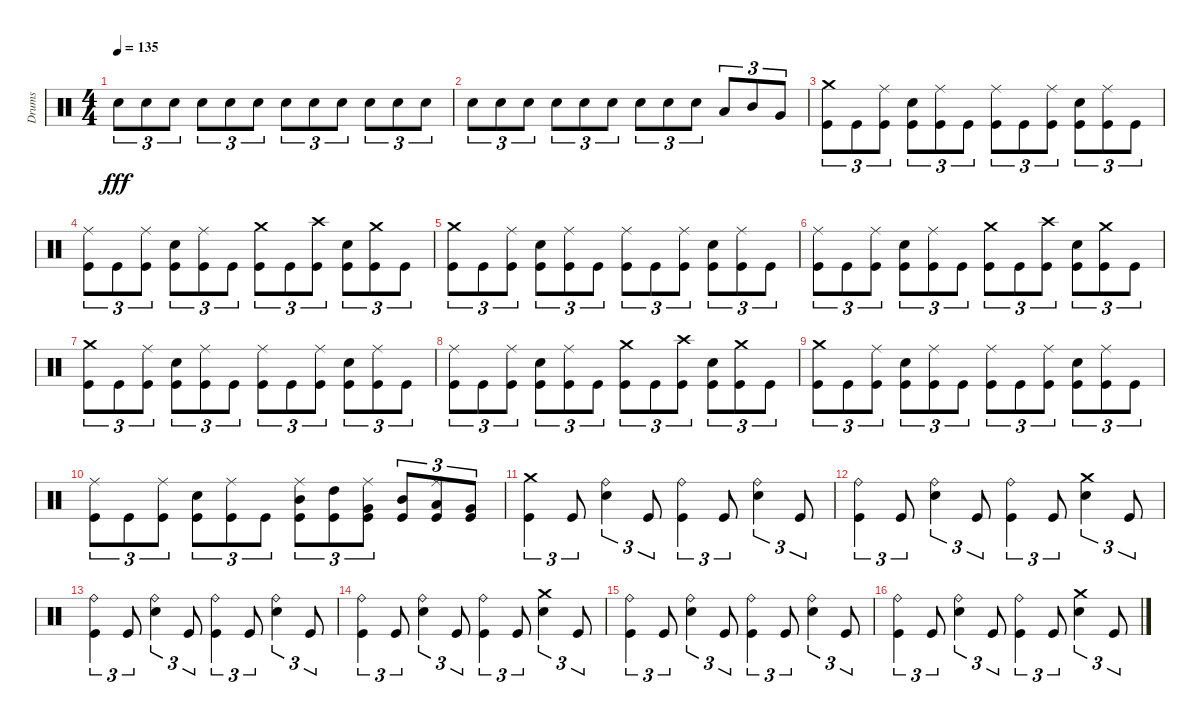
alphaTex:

\track ("Drums" "Drums") {instrument percussion}
\staff {score}
\articulation defaults
\ts (4 4)
\tempo 135
\clef neutral
\ks c "Snare (hit) 2".8{tu (3 2) dy fff} "Snare (hit) 2".8{tu (3 2)} "Snare (hit) 2".8{tu (3 2)} "Snare (hit) 2".8{tu (3 2)} "Snare (hit) 2".8{tu (3 2)} "Snare (hit) 2".8{tu (3 2)} "Snare (hit) 2".8{tu (3 2)} "Snare (hit) 2".8{tu (3 2)} "Snare (hit) 2".8{tu (3 2)} "Snare (hit) 2".8{tu (3 2)} "Snare (hit) 2".8{tu (3 2)} "Snare (hit) 2".8{tu (3 2)}
|
"Snare (hit) 2".8{tu (3 2)} "Snare (hit) 2".8{tu (3 2)} "Snare (hit) 2".8{tu (3 2)} "Snare (hit) 2".8{tu (3 2)} "Snare (hit) 2".8{tu (3 2)} "Snare (hit) 2".8{tu (3 2)} "Snare (hit) 2".8{tu (3 2)} "Snare (hit) 2".8{tu (3 2)} "Snare (hit) 2".8{tu (3 2)} "Low Tom (hit)".8{tu (3 2)} "Mid Tom (hit)".8{tu (3 2)} "Very Low Tom (hit)".8{tu (3 2)} |
("Crash medium (hit)" "Kick (hit)").8{tu (3 2)} "Kick (hit)".8{tu (3 2)} ("Ride (middle)" "Kick (hit)").8{tu (3 2)} ("Snare (hit) 2" "Kick (hit)").8{tu (3 2)} ("Ride (middle)" "Kick (hit)").8{tu (3 2)} "Kick (hit)".8{tu (3 2)} ("Ride (middle)" "Kick (hit)").8{tu (3 2)} "Kick (hit)".8{tu (3 2)} ("Ride (middle)" "Kick (hit)").8{tu (3 2)} ("Snare (hit) 2" "Kick (hit)").8{tu (3 2)} ("Ride (middle)" "Kick (hit)").8{tu (3 2)} "Kick (hit)".8{tu (3 2)} |
("Ride (middle)" "Kick (hit)").8{tu (3 2)} "Kick (hit)".8{tu (3 2)} ("Ride (middle)" "Kick (hit)").8{tu (3 2)} ("Snare (hit) 2" "Kick (hit)").8{tu (3 2)} ("Ride (middle)" "Kick (hit)").8{tu (3 2)} "Kick (hit)".8{tu (3 2)} ("Crash medium (hit)" "Kick (hit)").8{tu (3 2)} "Kick (hit)".8{tu (3 2)} ("Crash high (hit)" "Kick (hit)").8{tu (3 2)} ("Snare (hit) 2" "Kick (hit)").8{tu (3 2)} ("Crash medium (hit)" "Kick (hit)").8{tu (3 2)} "Kick (hit)".8{tu (3 2)} |
("Crash medium (hit)" "Kick (hit)").8{tu (3 2)} "Kick (hit)".8{tu (3 2)} ("Ride (middle)" "Kick (hit)").8{tu (3 2)} ("Snare (hit) 2" "Kick (hit)").8{tu (3 2)} ("Ride (middle)" "Kick (hit)").8{tu (3 2)} "Kick (hit)".8{tu (3 2)} ("Ride (middle)" "Kick (hit)").8{tu (3 2)} "Kick (hit)".8{tu (3 2)} ("Ride (middle)" "Kick (hit)").8{tu (3 2)} ("Snare (hit) 2" "Kick (hit)").8{tu (3 2)} ("Ride (middle)" "Kick (hit)").8{tu (3 2)} "Kick (hit)".8{tu (3 2)} |
("Ride (middle)" "Kick (hit)").8{tu (3 2)} "Kick (hit)".8{tu (3 2)} ("Ride (middle)" "Kick (hit)").8{tu (3 2)} ("Snare (hit) 2" "Kick (hit)").8{tu (3 2)} ("Ride (middle)" "Kick (hit)").8{tu (3 2)} "Kick (hit)".8{tu (3 2)} ("Crash medium (hit)" "Kick (hit)").8{tu (3 2)} "Kick (hit)".8{tu (3 2)} ("Crash high (hit)" "Kick (hit)").8{tu (3 2)} ("Snare (hit) 2" "Kick (hit)").8{tu (3 2)} ("Crash medium (hit)" "Kick (hit)").8{tu (3 2)} "Kick (hit)".8{tu (3 2)} |
("Crash medium (hit)" "Kick (hit)").8{tu (3 2)} "Kick (hit)".8{tu (3 2)} ("Ride (middle)" "Kick (hit)").8{tu (3 2)} ("Snare (hit) 2" "Kick (hit)").8{tu (3 2)} ("Ride (middle)" "Kick (hit)").8{tu (3 2)} "Kick (hit)".8{tu (3 2)} ("Ride (middle)" "Kick (hit)").8{tu (3 2)} "Kick (hit)".8{tu (3 2)} ("Ride (middle)" "Kick (hit)").8{tu (3 2)} ("Snare (hit) 2" "Kick (hit)").8{tu (3 2)} ("Ride (middle)" "Kick (hit)").8{tu (3 2)} "Kick (hit)".8{tu (3 2)} |
("Ride (middle)" "Kick (hit)").8{tu (3 2)} "Kick (hit)".8{tu (3 2)} ("Ride (middle)" "Kick (hit)").8{tu (3 2)} ("Snare (hit) 2" "Kick (hit)").8{tu (3 2)} ("Ride (middle)" "Kick (hit)").8{tu (3 2)} "Kick (hit)".8{tu (3 2)} ("Crash medium (hit)" "Kick (hit)").8{tu (3 2)} "Kick (hit)".8{tu (3 2)} ("Crash high (hit)" "Kick (hit)").8{tu (3 2)} ("Snare (hit) 2" "Kick (hit)").8{tu (3 2)} ("Crash medium (hit)" "Kick (hit)").8{tu (3 2)} "Kick (hit)".8{tu (3 2)} |
("Crash medium (hit)" "Kick (hit)").8{tu (3 2)} "Kick (hit)".8{tu (3 2)} ("Ride (middle)" "Kick (hit)").8{tu (3 2)} ("Snare (hit) 2" "Kick (hit)").8{tu (3 2)} ("Ride (middle)" "Kick (hit)").8{tu (3 2)} "Kick (hit)".8{tu (3 2)} ("Ride (middle)" "Kick (hit)").8{tu (3 2)} "Kick (hit)".8{tu (3 2)} ("Ride (middle)" "Kick (hit)").8{tu (3 2)} ("Snare (hit) 2" "Kick (hit)").8{tu (3 2)} ("Ride (middle)" "Kick (hit)").8{tu (3 2)} "Kick (hit)".8{tu (3 2)} |
("Ride (middle)" "Kick (hit)").8{tu (3 2)} "Kick (hit)".8{tu (3 2)} ("Ride (middle)" "Kick (hit)").8{tu (3 2)} ("Snare (hit) 2" "Kick (hit)").8{tu (3 2)} ("Ride (middle)" "Kick (hit)").8{tu (3 2)} "Kick (hit)".8{tu (3 2)} ("Ride (middle)" "Mid Tom (hit)" "Kick (hit)").8{tu (3 2)} ("High Tom (hit)" "Kick (hit)").8{tu (3 2)} ("Ride (middle)" "Very Low Tom (hit)" "Kick (hit)").8{tu (3 2)} ("Mid Tom (hit)" "Kick (hit)").8{tu (3 2)} ("Ride (middle)" "Low Floor Tom (hit)" "Kick (hit)").8{tu (3 2)} ("Very Low Tom (hit)" "Kick (hit)").8{tu (3 2)} |
("Crash medium (hit)" "Kick (hit)").4{tu (3 2)} "Kick (hit)".8{tu (3 2)} ("Ride (bell)" "Snare (hit) 2").4{tu (3 2)} "Kick (hit)".8{tu (3 2)} ("Ride (bell)" "Kick (hit)").4{tu (3 2)} "Kick (hit)".8{tu (3 2)} ("Ride (bell)" "Snare (hit) 2").4{tu (3 2)} "Kick (hit)".8{tu (3 2)} |
("Ride (bell)" "Kick (hit)").4{tu (3 2)} "Kick (hit)".8{tu (3 2)} ("Ride (bell)" "Snare (hit) 2").4{tu (3 2)} "Kick (hit)".8{tu (3 2)} ("Ride (bell)" "Kick (hit)").4{tu (3 2)} "Kick (hit)".8{tu (3 2)} ("Crash medium (hit)" "Snare (hit) 2").4{tu (3 2)} "Kick (hit)".8{tu (3 2)} |
("Ride (bell)" "Kick (hit)").4{tu (3 2)} "Kick (hit)".8{tu (3 2)} ("Ride (bell)" "Snare (hit) 2").4{tu (3 2)} "Kick (hit)".8{tu (3 2)} ("Ride (bell)" "Kick (hit)").4{tu (3 2)} "Kick (hit)".8{tu (3 2)} ("Ride (bell)" "Snare (hit) 2").4{tu (3 2)} "Kick (hit)".8{tu (3 2)} |
("Ride (bell)" "Kick (hit)").4{tu (3 2)} "Kick (hit)".8{tu (3 2)} ("Ride (bell)" "Snare (hit) 2").4{tu (3 2)} "Kick (hit)".8{tu (3 2)} ("Ride (bell)" "Kick (hit)").4{tu (3 2)} "Kick (hit)".8{tu (3 2)} ("Crash medium (hit)" "Snare (hit) 2").4{tu (3 2)} "Kick (hit)".8{tu (3 2)} |
("Ride (bell)" "Kick (hit)").4{tu (3 2)} "Kick (hit)".8{tu (3 2)} ("Ride (bell)" "Snare (hit) 2").4{tu (3 2)} "Kick (hit)".8{tu (3 2)} ("Ride (bell)" "Kick (hit)").4{tu (3 2)} "Kick (hit)".8{tu (3 2)} ("Ride (bell)" "Snare (hit) 2").4{tu (3 2)} "Kick (hit)".8{tu (3 2)} |
("Ride (bell)" "Kick (hit)").4{tu (3 2)} "Kick (hit)".8{tu (3 2)} ("Ride (bell)" "Snare (hit) 2").4{tu (3 2)} "Kick (hit)".8{tu (3 2)} ("Ride (bell)" "Kick (hit)").4{tu (3 2)} "Kick (hit)".8{tu (3 2)} ("Crash medium (hit)" "Snare (hit) 2").4{tu (3 2)} "Kick (hit)".8{tu (3 2)}
